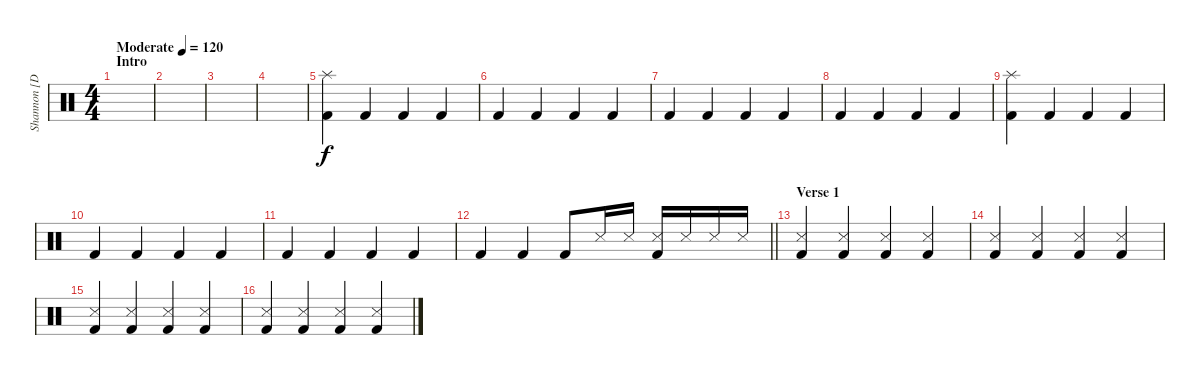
\track ("Shannon [Drums]" "Shannon [D") {instrument percussion}
\staff {score}
\articulation defaults
\ts (4 4)
\section ("" "Intro")
\tempo (120 "Moderate")
\clef neutral
\ks c
|
|
|
|
("Splash (hit)" "Kick (hit) 2").4 "Kick (hit) 2".4 "Kick (hit) 2".4 "Kick (hit) 2".4 |
"Kick (hit) 2".4 "Kick (hit) 2".4 "Kick (hit) 2".4 "Kick (hit) 2".4 |
"Kick (hit) 2".4 "Kick (hit) 2".4 "Kick (hit) 2".4 "Kick (hit) 2".4 |
"Kick (hit) 2".4 "Kick (hit) 2".4 "Kick (hit) 2".4 "Kick (hit) 2".4 |
("Splash (hit)" "Kick (hit) 2").4 "Kick (hit) 2".4 "Kick (hit) 2".4 "Kick (hit) 2".4 |
"Kick (hit) 2".4 "Kick (hit) 2".4 "Kick (hit) 2".4 "Kick (hit) 2".4 |
"Kick (hit) 2".4 "Kick (hit) 2".4 "Kick (hit) 2".4 "Kick (hit) 2".4 |
\barLineRight lightlight "Kick (hit) 2".4 "Kick (hit) 2".4 "Kick (hit) 2".8 "Snare (side stick) 3".16 "Snare (side stick) 3".16
("Snare (side stick) 3" "Kick (hit) 2").16 "Snare (side stick) 3".16 "Snare (side stick) 3".16 "Snare (side stick) 3".16 |
\section ("" "Verse 1")
("Snare (side stick) 3" "Kick (hit) 2").4 ("Snare (side stick) 3" "Kick (hit) 2").4 ("Snare (side stick) 3" "Kick (hit) 2").4 ("Snare (side stick) 3" "Kick (hit) 2").4 |
("Snare (side stick) 3" "Kick (hit) 2").4 ("Snare (side stick) 3" "Kick (hit) 2").4 ("Snare (side stick) 3" "Kick (hit) 2").4 ("Snare (side stick) 3" "Kick (hit) 2").4 |
("Snare (side stick) 3" "Kick (hit) 2").4 ("Snare (side stick) 3" "Kick (hit) 2").4 ("Snare (side stick) 3" "Kick (hit) 2").4 ("Snare (side stick) 3" "Kick (hit) 2").4 |
("Snare (side stick) 3" "Kick (hit) 2").4 ("Snare (side stick) 3" "Kick (hit) 2").4 ("Snare (side stick) 3" "Kick (hit) 2").4 ("Snare (side stick) 3" "Kick (hit) 2").4
